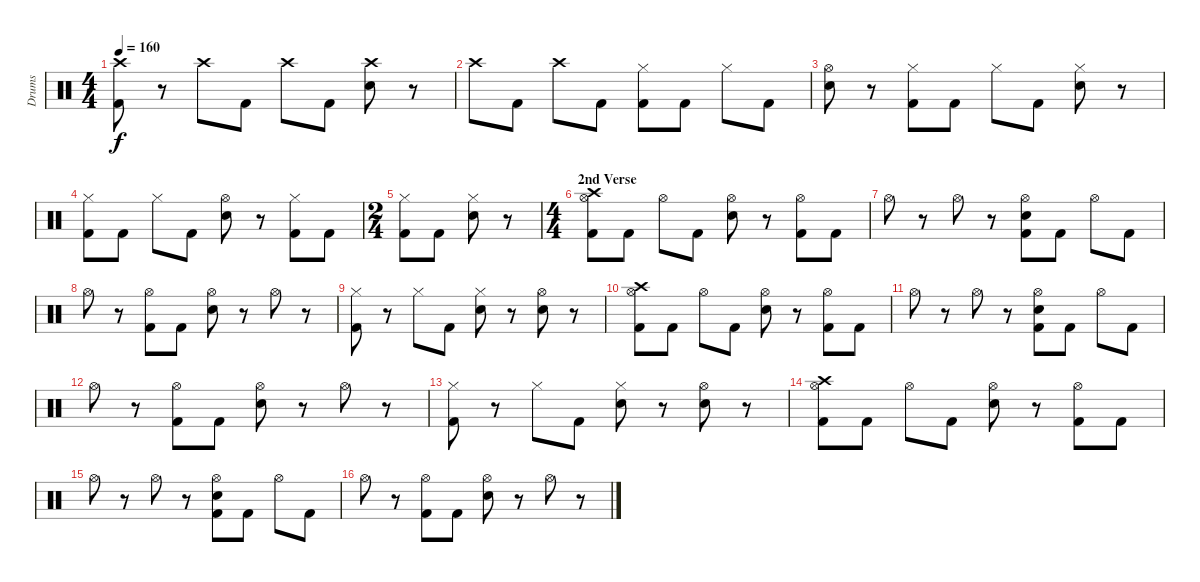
\track ("Drums" "Drums") {instrument percussion}
\staff {score}
\articulation defaults
\ts (4 4)
\tempo 160
\clef neutral
\ks c
("Kick (hit) 2" "Crash high (hit)").8{dy f} r.8 "Crash high (hit)".8 "Kick (hit) 2".8 "Crash high (hit)".8 "Kick (hit) 2".8 ("Electric Snare (hit)" "Crash high (hit)").8 r.8 |
"Crash high (hit)".8 "Kick (hit) 2".8 "Crash high (hit)".8 "Kick (hit) 2".8 ("Kick (hit) 2" "Hi-Hat (closed)").8 "Kick (hit) 2".8 "Hi-Hat (closed)".8 "Kick (hit) 2".8 |
("Electric Snare (hit)" "Hi-Hat (open)").8 r.8 ("Kick (hit) 2" "Hi-Hat (closed)").8 "Kick (hit) 2".8 "Hi-Hat (closed)".8 "Kick (hit) 2".8 ("Electric Snare (hit)" "Hi-Hat (closed)").8 r.8 |
("Kick (hit) 2" "Hi-Hat (closed)").8 "Kick (hit) 2".8 "Hi-Hat (closed)".8 "Kick (hit) 2".8 ("Electric Snare (hit)" "Hi-Hat (open)").8 r.8 ("Kick (hit) 2" "Hi-Hat (closed)").8 "Kick (hit) 2".8 |
\ts (2 4)
("Kick (hit) 2" "Hi-Hat (closed)").8 "Kick (hit) 2".8 ("Electric Snare (hit)" "Hi-Hat (closed)").8 r.8 |
\ts (4 4)
\section ("" "2nd Verse")
("Kick (hit) 2" "Crash high (hit)" "Hi-Hat (open)").8 "Kick (hit) 2".8 "Hi-Hat (open)".8 "Kick (hit) 2".8 ("Electric Snare (hit)" "Hi-Hat (open)").8 r.8 ("Kick (hit) 2" "Hi-Hat (open)").8 "Kick (hit) 2".8 |
"Hi-Hat (open)".8 r.8 "Hi-Hat (open)".8 r.8 ("Electric Snare (hit)" "Kick (hit) 2" "Hi-Hat (open)").8 "Kick (hit) 2".8 "Hi-Hat (open)".8 "Kick (hit) 2".8 |
"Hi-Hat (open)".8 r.8 ("Kick (hit) 2" "Hi-Hat (open)").8 "Kick (hit) 2".8 ("Electric Snare (hit)" "Hi-Hat (open)").8 r.8 "Hi-Hat (open)".8 r.8 |
("Kick (hit) 2" "Hi-Hat (closed)").8 r.8 "Hi-Hat (closed)".8 "Kick (hit) 2".8 ("Electric Snare (hit)" "Hi-Hat (closed)").8 r.8 ("Electric Snare (hit)" "Hi-Hat (open)").8 r.8 |
("Kick (hit) 2" "Crash high (hit)" "Hi-Hat (open)").8 "Kick (hit) 2".8 "Hi-Hat (open)".8 "Kick (hit) 2".8 ("Electric Snare (hit)" "Hi-Hat (open)").8 r.8 ("Kick (hit) 2" "Hi-Hat (open)").8 "Kick (hit) 2".8 |
"Hi-Hat (open)".8 r.8 "Hi-Hat (open)".8 r.8 ("Electric Snare (hit)" "Kick (hit) 2" "Hi-Hat (open)").8 "Kick (hit) 2".8 "Hi-Hat (open)".8 "Kick (hit) 2".8 |
"Hi-Hat (open)".8 r.8 ("Kick (hit) 2" "Hi-Hat (open)").8 "Kick (hit) 2".8 ("Electric Snare (hit)" "Hi-Hat (open)").8 r.8 "Hi-Hat (open)".8 r.8 |
("Kick (hit) 2" "Hi-Hat (closed)").8 r.8 "Hi-Hat (closed)".8 "Kick (hit) 2".8 ("Electric Snare (hit)" "Hi-Hat (closed)").8 r.8 ("Electric Snare (hit)" "Hi-Hat (open)").8 r.8 |
("Kick (hit) 2" "Crash high (hit)" "Hi-Hat (open)").8 "Kick (hit) 2".8 "Hi-Hat (open)".8 "Kick (hit) 2".8 ("Electric Snare (hit)" "Hi-Hat (open)").8 r.8 ("Kick (hit) 2" "Hi-Hat (open)").8 "Kick (hit) 2".8 |
"Hi-Hat (open)".8 r.8 "Hi-Hat (open)".8 r.8 ("Electric Snare (hit)" "Kick (hit) 2" "Hi-Hat (open)").8 "Kick (hit) 2".8 "Hi-Hat (open)".8 "Kick (hit) 2".8 |
"Hi-Hat (open)".8 r.8 ("Kick (hit) 2" "Hi-Hat (open)").8 "Kick (hit) 2".8 ("Electric Snare (hit)" "Hi-Hat (open)").8 r.8 "Hi-Hat (open)".8 r.8
